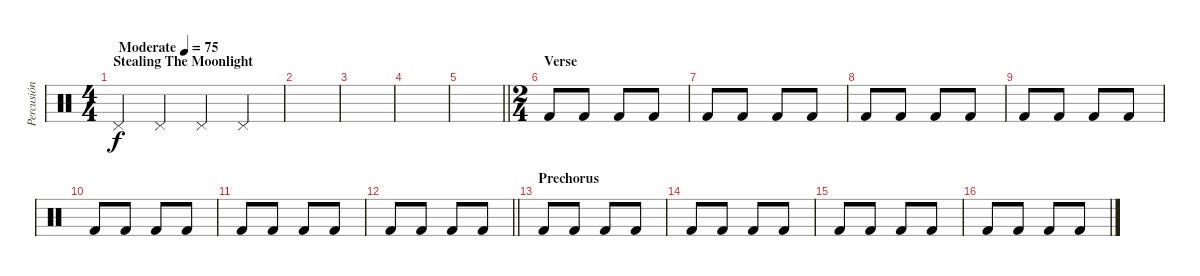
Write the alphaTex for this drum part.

\track ("Percusión" "Percusión") {instrument percussion}
\staff {score}
\articulation defaults
\ts (4 4)
\section ("" "Stealing The Moonlight")
\tempo (75 "Moderate")
\clef neutral
\ks c "Pedal Hi-Hat (hit)".4{dy f} "Pedal Hi-Hat (hit)".4 "Pedal Hi-Hat (hit)".4 "Pedal Hi-Hat (hit)".4
|
|
|
|
\barLineRight lightlight
|
\ts (2 4)
\section ("" "Verse")
"Kick (hit) 2".8 "Kick (hit) 2".8 "Kick (hit) 2".8 "Kick (hit) 2".8 |
"Kick (hit) 2".8 "Kick (hit) 2".8 "Kick (hit) 2".8 "Kick (hit) 2".8 |
"Kick (hit) 2".8 "Kick (hit) 2".8 "Kick (hit) 2".8 "Kick (hit) 2".8 |
"Kick (hit) 2".8 "Kick (hit) 2".8 "Kick (hit) 2".8 "Kick (hit) 2".8 |
"Kick (hit) 2".8 "Kick (hit) 2".8 "Kick (hit) 2".8 "Kick (hit) 2".8 |
"Kick (hit) 2".8 "Kick (hit) 2".8 "Kick (hit) 2".8 "Kick (hit) 2".8 |
\barLineRight lightlight "Kick (hit) 2".8 "Kick (hit) 2".8 "Kick (hit) 2".8 "Kick (hit) 2".8
|
\section ("" "Prechorus")
"Kick (hit) 2".8 "Kick (hit) 2".8 "Kick (hit) 2".8 "Kick (hit) 2".8 |
"Kick (hit) 2".8 "Kick (hit) 2".8 "Kick (hit) 2".8 "Kick (hit) 2".8 |
"Kick (hit) 2".8 "Kick (hit) 2".8 "Kick (hit) 2".8 "Kick (hit) 2".8 |
"Kick (hit) 2".8 "Kick (hit) 2".8 "Kick (hit) 2".8 "Kick (hit) 2".8
